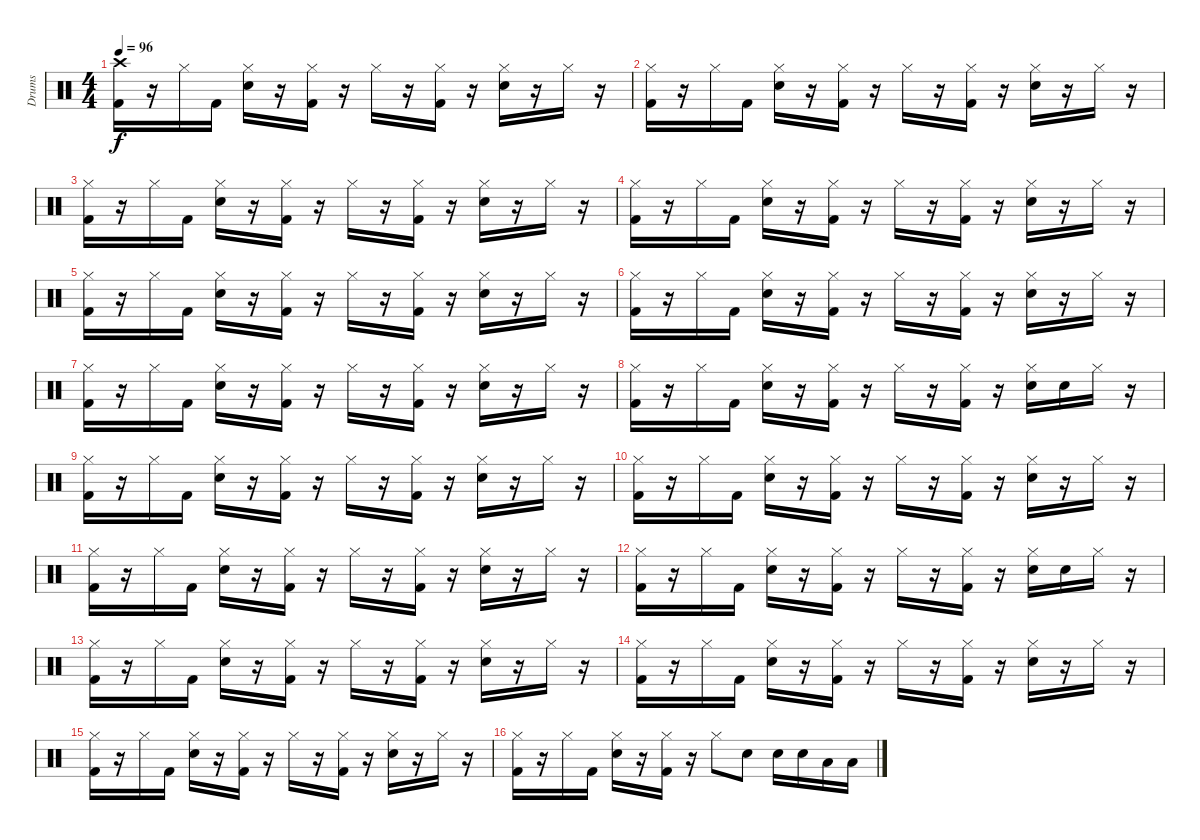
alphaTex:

\track ("Drums" "Drums") {instrument percussion}
\staff {score}
\articulation defaults
\ts (4 4)
\tempo 96
\clef neutral
\ks c
("Crash high (hit)" "Kick (hit) 2").16{dy f} r.16 "Hi-Hat (closed)".16 "Kick (hit) 2".16 ("Hi-Hat (closed)" "Snare (hit) 2").16 r.16 ("Hi-Hat (closed)" "Kick (hit) 2").16 r.16 "Hi-Hat (closed)".16 r.16 ("Hi-Hat (closed)" "Kick (hit) 2").16 r.16 ("Hi-Hat (closed)" "Snare (hit) 2").16 r.16 "Hi-Hat (closed)".16 r.16 |
("Hi-Hat (closed)" "Kick (hit) 2").16 r.16 "Hi-Hat (closed)".16 "Kick (hit) 2".16 ("Hi-Hat (closed)" "Snare (hit) 2").16 r.16 ("Hi-Hat (closed)" "Kick (hit) 2").16 r.16 "Hi-Hat (closed)".16 r.16 ("Hi-Hat (closed)" "Kick (hit) 2").16 r.16 ("Hi-Hat (closed)" "Snare (hit) 2").16 r.16 "Hi-Hat (closed)".16 r.16 |
("Hi-Hat (closed)" "Kick (hit) 2").16 r.16 "Hi-Hat (closed)".16 "Kick (hit) 2".16 ("Hi-Hat (closed)" "Snare (hit) 2").16 r.16 ("Hi-Hat (closed)" "Kick (hit) 2").16 r.16 "Hi-Hat (closed)".16 r.16 ("Hi-Hat (closed)" "Kick (hit) 2").16 r.16 ("Hi-Hat (closed)" "Snare (hit) 2").16 r.16 "Hi-Hat (closed)".16 r.16 |
("Hi-Hat (closed)" "Kick (hit) 2").16 r.16 "Hi-Hat (closed)".16 "Kick (hit) 2".16 ("Hi-Hat (closed)" "Snare (hit) 2").16 r.16 ("Hi-Hat (closed)" "Kick (hit) 2").16 r.16 "Hi-Hat (closed)".16 r.16 ("Hi-Hat (closed)" "Kick (hit) 2").16 r.16 ("Hi-Hat (closed)" "Snare (hit) 2").16 r.16 "Hi-Hat (closed)".16 r.16 |
("Hi-Hat (closed)" "Kick (hit) 2").16 r.16 "Hi-Hat (closed)".16 "Kick (hit) 2".16 ("Hi-Hat (closed)" "Snare (hit) 2").16 r.16 ("Hi-Hat (closed)" "Kick (hit) 2").16 r.16 "Hi-Hat (closed)".16 r.16 ("Hi-Hat (closed)" "Kick (hit) 2").16 r.16 ("Hi-Hat (closed)" "Snare (hit) 2").16 r.16 "Hi-Hat (closed)".16 r.16 |
("Hi-Hat (closed)" "Kick (hit) 2").16 r.16 "Hi-Hat (closed)".16 "Kick (hit) 2".16 ("Hi-Hat (closed)" "Snare (hit) 2").16 r.16 ("Hi-Hat (closed)" "Kick (hit) 2").16 r.16 "Hi-Hat (closed)".16 r.16 ("Hi-Hat (closed)" "Kick (hit) 2").16 r.16 ("Hi-Hat (closed)" "Snare (hit) 2").16 r.16 "Hi-Hat (closed)".16 r.16 |
("Hi-Hat (closed)" "Kick (hit) 2").16 r.16 "Hi-Hat (closed)".16 "Kick (hit) 2".16 ("Hi-Hat (closed)" "Snare (hit) 2").16 r.16 ("Hi-Hat (closed)" "Kick (hit) 2").16 r.16 "Hi-Hat (closed)".16 r.16 ("Hi-Hat (closed)" "Kick (hit) 2").16 r.16 ("Hi-Hat (closed)" "Snare (hit) 2").16 r.16 "Hi-Hat (closed)".16 r.16 |
("Hi-Hat (closed)" "Kick (hit) 2").16 r.16 "Hi-Hat (closed)".16 "Kick (hit) 2".16 ("Hi-Hat (closed)" "Snare (hit) 2").16 r.16 ("Hi-Hat (closed)" "Kick (hit) 2").16 r.16 "Hi-Hat (closed)".16 r.16 ("Hi-Hat (closed)" "Kick (hit) 2").16 r.16 ("Hi-Hat (closed)" "Snare (hit) 2").16 "Snare (hit) 2".16 "Hi-Hat (closed)".16 r.16 |
("Hi-Hat (closed)" "Kick (hit) 2").16 r.16 "Hi-Hat (closed)".16 "Kick (hit) 2".16 ("Hi-Hat (closed)" "Snare (hit) 2").16 r.16 ("Hi-Hat (closed)" "Kick (hit) 2").16 r.16 "Hi-Hat (closed)".16 r.16 ("Hi-Hat (closed)" "Kick (hit) 2").16 r.16 ("Hi-Hat (closed)" "Snare (hit) 2").16 r.16 "Hi-Hat (closed)".16 r.16 |
("Hi-Hat (closed)" "Kick (hit) 2").16 r.16 "Hi-Hat (closed)".16 "Kick (hit) 2".16 ("Hi-Hat (closed)" "Snare (hit) 2").16 r.16 ("Hi-Hat (closed)" "Kick (hit) 2").16 r.16 "Hi-Hat (closed)".16 r.16 ("Hi-Hat (closed)" "Kick (hit) 2").16 r.16 ("Hi-Hat (closed)" "Snare (hit) 2").16 r.16 "Hi-Hat (closed)".16 r.16 |
("Hi-Hat (closed)" "Kick (hit) 2").16 r.16 "Hi-Hat (closed)".16 "Kick (hit) 2".16 ("Hi-Hat (closed)" "Snare (hit) 2").16 r.16 ("Hi-Hat (closed)" "Kick (hit) 2").16 r.16 "Hi-Hat (closed)".16 r.16 ("Hi-Hat (closed)" "Kick (hit) 2").16 r.16 ("Hi-Hat (closed)" "Snare (hit) 2").16 r.16 "Hi-Hat (closed)".16 r.16 |
("Hi-Hat (closed)" "Kick (hit) 2").16 r.16 "Hi-Hat (closed)".16 "Kick (hit) 2".16 ("Hi-Hat (closed)" "Snare (hit) 2").16 r.16 ("Hi-Hat (closed)" "Kick (hit) 2").16 r.16 "Hi-Hat (closed)".16 r.16 ("Hi-Hat (closed)" "Kick (hit) 2").16 r.16 ("Hi-Hat (closed)" "Snare (hit) 2").16 "Snare (hit) 2".16 "Hi-Hat (closed)".16 r.16 |
("Hi-Hat (closed)" "Kick (hit) 2").16 r.16 "Hi-Hat (closed)".16 "Kick (hit) 2".16 ("Hi-Hat (closed)" "Snare (hit) 2").16 r.16 ("Hi-Hat (closed)" "Kick (hit) 2").16 r.16 "Hi-Hat (closed)".16 r.16 ("Hi-Hat (closed)" "Kick (hit) 2").16 r.16 ("Hi-Hat (closed)" "Snare (hit) 2").16 r.16 "Hi-Hat (closed)".16 r.16 |
("Hi-Hat (closed)" "Kick (hit) 2").16 r.16 "Hi-Hat (closed)".16 "Kick (hit) 2".16 ("Hi-Hat (closed)" "Snare (hit) 2").16 r.16 ("Hi-Hat (closed)" "Kick (hit) 2").16 r.16 "Hi-Hat (closed)".16 r.16 ("Hi-Hat (closed)" "Kick (hit) 2").16 r.16 ("Hi-Hat (closed)" "Snare (hit) 2").16 r.16 "Hi-Hat (closed)".16 r.16 |
("Hi-Hat (closed)" "Kick (hit) 2").16 r.16 "Hi-Hat (closed)".16 "Kick (hit) 2".16 ("Hi-Hat (closed)" "Snare (hit) 2").16 r.16 ("Hi-Hat (closed)" "Kick (hit) 2").16 r.16 "Hi-Hat (closed)".16 r.16 ("Hi-Hat (closed)" "Kick (hit) 2").16 r.16 ("Hi-Hat (closed)" "Snare (hit) 2").16 r.16 "Hi-Hat (closed)".16 r.16 |
("Hi-Hat (closed)" "Kick (hit) 2").16 r.16 "Hi-Hat (closed)".16 "Kick (hit) 2".16 ("Hi-Hat (closed)" "Snare (hit) 2").16 r.16 ("Hi-Hat (closed)" "Kick (hit) 2").16 r.16 "Hi-Hat (closed)".8 "Snare (hit) 2".8 "Snare (hit) 2".16 "Snare (hit) 2".16 "Low Tom (hit)".16 "Low Tom (hit)".16
